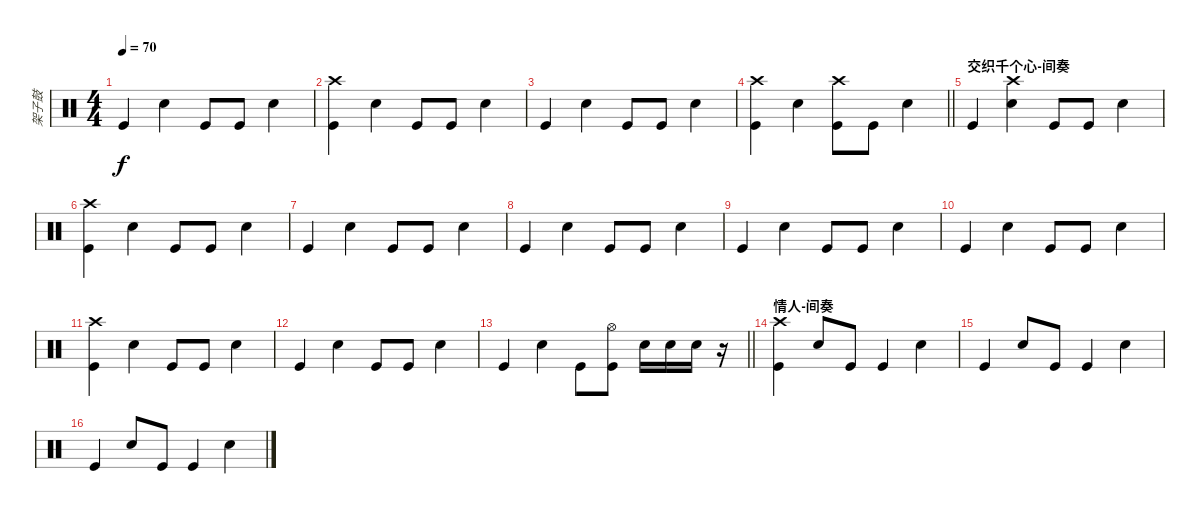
\track ("架子鼓" "架子鼓") {instrument percussion}
\staff {score}
\articulation defaults
\ts (4 4)
\tempo 70
\clef neutral
\ks c "Kick (hit)".4{dy f} "Electric Snare (hit)".4 "Kick (hit)".8 "Kick (hit)".8 "Electric Snare (hit)".4
|
("Crash high (hit)" "Kick (hit)").4 "Electric Snare (hit)".4 "Kick (hit)".8 "Kick (hit)".8 "Electric Snare (hit)".4 |
"Kick (hit)".4 "Electric Snare (hit)".4 "Kick (hit)".8 "Kick (hit)".8 "Electric Snare (hit)".4 |
\barLineRight lightlight
("Crash high (hit)" "Kick (hit)").4 "Electric Snare (hit)".4 ("Crash high (hit)" "Kick (hit)").8 "Kick (hit)".8 "Electric Snare (hit)".4 |
\section ("" "交织千个心-间奏")
"Kick (hit)".4 ("Crash high (hit)" "Electric Snare (hit)").4 "Kick (hit)".8 "Kick (hit)".8 "Electric Snare (hit)".4 |
("Crash high (hit)" "Kick (hit)").4 "Electric Snare (hit)".4 "Kick (hit)".8 "Kick (hit)".8 "Electric Snare (hit)".4 |
"Kick (hit)".4 "Electric Snare (hit)".4 "Kick (hit)".8 "Kick (hit)".8 "Electric Snare (hit)".4 |
"Kick (hit)".4 "Electric Snare (hit)".4 "Kick (hit)".8 "Kick (hit)".8 "Electric Snare (hit)".4 |
"Kick (hit)".4 "Electric Snare (hit)".4 "Kick (hit)".8 "Kick (hit)".8 "Electric Snare (hit)".4 |
"Kick (hit)".4 "Electric Snare (hit)".4 "Kick (hit)".8 "Kick (hit)".8 "Electric Snare (hit)".4 |
("Crash high (hit)" "Kick (hit)").4 "Electric Snare (hit)".4 "Kick (hit)".8 "Kick (hit)".8 "Electric Snare (hit)".4 |
"Kick (hit)".4 "Electric Snare (hit)".4 "Kick (hit)".8 "Kick (hit)".8 "Electric Snare (hit)".4 |
\barLineRight lightlight "Kick (hit)".4 "Electric Snare (hit)".4 "Kick (hit)".8
("Hi-Hat (open)" "Kick (hit)").8 "Electric Snare (hit)".16 "Electric Snare (hit)".16 "Electric Snare (hit)".16 r.16 |
\section ("" "情人-间奏")
("Crash high (hit)" "Kick (hit)").4 "Electric Snare (hit)".8 "Kick (hit)".8 "Kick (hit)".4 "Electric Snare (hit)".4 |
"Kick (hit)".4 "Electric Snare (hit)".8 "Kick (hit)".8 "Kick (hit)".4 "Electric Snare (hit)".4 |
"Kick (hit)".4 "Electric Snare (hit)".8 "Kick (hit)".8 "Kick (hit)".4 "Electric Snare (hit)".4
